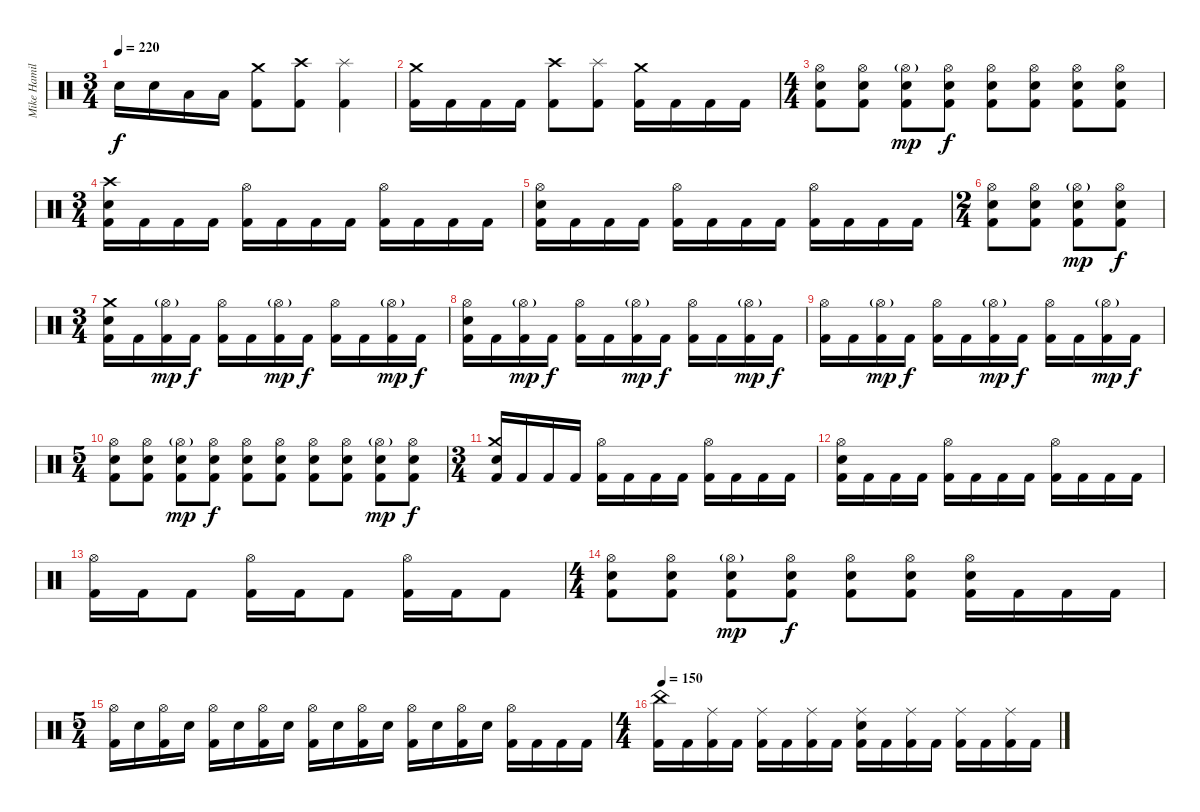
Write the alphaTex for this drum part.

\track ("Mike Hamilton" "Mike Hamil") {instrument percussion}
\staff {score}
\articulation defaults
\ts (3 4)
\tempo 220
\clef neutral
\ks c "Electric Snare (hit)".16{dy f} "Electric Snare (hit)".16 "Low Tom (hit)".16 "Low Tom (hit)".16
("Crash medium (hit)" "Kick (hit) 2").8 ("Crash high (hit)" "Kick (hit) 2").8 ("Splash (hit)" "Kick (hit) 2").4 |
("Crash medium (hit)" "Kick (hit) 2").16 "Kick (hit) 2".16 "Kick (hit) 2".16 "Kick (hit) 2".16 ("Crash high (hit)" "Kick (hit) 2").8 ("Splash (hit)" "Kick (hit) 2").8 ("Crash medium (hit)" "Kick (hit) 2").16 "Kick (hit) 2".16 "Kick (hit) 2".16 "Kick (hit) 2".16 |
\ts (4 4)
("Hi-Hat (open)" "Electric Snare (hit)" "Kick (hit) 2").8 ("Hi-Hat (open)" "Electric Snare (hit)" "Kick (hit) 2").8 ("Hi-Hat (open)"{g} "Electric Snare (hit)" "Kick (hit) 2").8{dy mp} ("Hi-Hat (open)" "Electric Snare (hit)" "Kick (hit) 2").8{dy f} ("Hi-Hat (open)" "Electric Snare (hit)" "Kick (hit) 2").8 ("Hi-Hat (open)" "Electric Snare (hit)" "Kick (hit) 2").8 ("Hi-Hat (open)" "Electric Snare (hit)" "Kick (hit) 2").8 ("Hi-Hat (open)" "Electric Snare (hit)" "Kick (hit) 2").8 |
\ts (3 4)
("Crash high (hit)" "Electric Snare (hit)" "Kick (hit) 2").16 "Kick (hit) 2".16 "Kick (hit) 2".16 "Kick (hit) 2".16 ("Hi-Hat (open)" "Kick (hit) 2").16 "Kick (hit) 2".16 "Kick (hit) 2".16 "Kick (hit) 2".16 ("Hi-Hat (open)" "Kick (hit) 2").16 "Kick (hit) 2".16 "Kick (hit) 2".16 "Kick (hit) 2".16 |
("Hi-Hat (open)" "Electric Snare (hit)" "Kick (hit) 2").16 "Kick (hit) 2".16 "Kick (hit) 2".16 "Kick (hit) 2".16 ("Hi-Hat (open)" "Kick (hit) 2").16 "Kick (hit) 2".16 "Kick (hit) 2".16 "Kick (hit) 2".16 ("Hi-Hat (open)" "Kick (hit) 2").16 "Kick (hit) 2".16 "Kick (hit) 2".16 "Kick (hit) 2".16 |
\ts (2 4)
("Hi-Hat (open)" "Electric Snare (hit)" "Kick (hit) 2").8 ("Hi-Hat (open)" "Electric Snare (hit)" "Kick (hit) 2").8 ("Hi-Hat (open)"{g} "Electric Snare (hit)" "Kick (hit) 2").8{dy mp} ("Hi-Hat (open)" "Electric Snare (hit)" "Kick (hit) 2").8{dy f} |
\ts (3 4)
("Crash medium (hit)" "Electric Snare (hit)" "Kick (hit) 2").16 "Kick (hit) 2".16 ("Hi-Hat (open)"{g} "Kick (hit) 2").16{dy mp} "Kick (hit) 2".16{dy f} ("Hi-Hat (open)" "Kick (hit) 2").16 "Kick (hit) 2".16 ("Hi-Hat (open)"{g} "Kick (hit) 2").16{dy mp} "Kick (hit) 2".16{dy f} ("Hi-Hat (open)" "Kick (hit) 2").16 "Kick (hit) 2".16 ("Hi-Hat (open)"{g} "Kick (hit) 2").16{dy mp} "Kick (hit) 2".16{dy f} |
("Hi-Hat (open)" "Electric Snare (hit)" "Kick (hit) 2").16 "Kick (hit) 2".16 ("Hi-Hat (open)"{g} "Kick (hit) 2").16{dy mp} "Kick (hit) 2".16{dy f} ("Hi-Hat (open)" "Kick (hit) 2").16 "Kick (hit) 2".16 ("Hi-Hat (open)"{g} "Kick (hit) 2").16{dy mp} "Kick (hit) 2".16{dy f} ("Hi-Hat (open)" "Kick (hit) 2").16 "Kick (hit) 2".16 ("Hi-Hat (open)"{g} "Kick (hit) 2").16{dy mp} "Kick (hit) 2".16{dy f} |
("Hi-Hat (open)" "Kick (hit) 2").16 "Kick (hit) 2".16 ("Hi-Hat (open)"{g} "Kick (hit) 2").16{dy mp} "Kick (hit) 2".16{dy f} ("Hi-Hat (open)" "Kick (hit) 2").16 "Kick (hit) 2".16 ("Hi-Hat (open)"{g} "Kick (hit) 2").16{dy mp} "Kick (hit) 2".16{dy f} ("Hi-Hat (open)" "Kick (hit) 2").16 "Kick (hit) 2".16 ("Hi-Hat (open)"{g} "Kick (hit) 2").16{dy mp} "Kick (hit) 2".16{dy f} |
\ts (5 4)
("Hi-Hat (open)" "Electric Snare (hit)" "Kick (hit) 2").8 ("Hi-Hat (open)" "Electric Snare (hit)" "Kick (hit) 2").8 ("Hi-Hat (open)"{g} "Electric Snare (hit)" "Kick (hit) 2").8{dy mp} ("Hi-Hat (open)" "Electric Snare (hit)" "Kick (hit) 2").8{dy f} ("Hi-Hat (open)" "Electric Snare (hit)" "Kick (hit) 2").8 ("Hi-Hat (open)" "Electric Snare (hit)" "Kick (hit) 2").8 ("Hi-Hat (open)" "Electric Snare (hit)" "Kick (hit) 2").8 ("Hi-Hat (open)" "Electric Snare (hit)" "Kick (hit) 2").8 ("Hi-Hat (open)"{g} "Electric Snare (hit)" "Kick (hit) 2").8{dy mp} ("Hi-Hat (open)" "Electric Snare (hit)" "Kick (hit) 2").8{dy f} |
\ts (3 4)
("Crash medium (hit)" "Electric Snare (hit)" "Kick (hit) 2").16 "Kick (hit) 2".16 "Kick (hit) 2".16 "Kick (hit) 2".16 ("Hi-Hat (open)" "Kick (hit) 2").16 "Kick (hit) 2".16 "Kick (hit) 2".16 "Kick (hit) 2".16 ("Hi-Hat (open)" "Kick (hit) 2").16 "Kick (hit) 2".16 "Kick (hit) 2".16 "Kick (hit) 2".16 |
("Hi-Hat (open)" "Electric Snare (hit)" "Kick (hit) 2").16 "Kick (hit) 2".16 "Kick (hit) 2".16 "Kick (hit) 2".16 ("Hi-Hat (open)" "Kick (hit) 2").16 "Kick (hit) 2".16 "Kick (hit) 2".16 "Kick (hit) 2".16 ("Hi-Hat (open)" "Kick (hit) 2").16 "Kick (hit) 2".16 "Kick (hit) 2".16 "Kick (hit) 2".16 |
("Hi-Hat (open)" "Kick (hit) 2").16 "Kick (hit) 2".16 "Kick (hit) 2".8 ("Hi-Hat (open)" "Kick (hit) 2").16 "Kick (hit) 2".16 "Kick (hit) 2".8 ("Hi-Hat (open)" "Kick (hit) 2").16 "Kick (hit) 2".16 "Kick (hit) 2".8 |
\ts (4 4)
("Hi-Hat (open)" "Electric Snare (hit)" "Kick (hit) 2").8 ("Hi-Hat (open)" "Electric Snare (hit)" "Kick (hit) 2").8 ("Hi-Hat (open)"{g} "Electric Snare (hit)" "Kick (hit) 2").8{dy mp} ("Hi-Hat (open)" "Electric Snare (hit)" "Kick (hit) 2").8{dy f} ("Hi-Hat (open)" "Electric Snare (hit)" "Kick (hit) 2").8 ("Hi-Hat (open)" "Electric Snare (hit)" "Kick (hit) 2").8 ("Hi-Hat (open)" "Electric Snare (hit)" "Kick (hit) 2").16 "Kick (hit) 2".16 "Kick (hit) 2".16 "Kick (hit) 2".16 |
\ts (5 4)
("Hi-Hat (open)" "Kick (hit) 2").16 "Electric Snare (hit)".16 ("Hi-Hat (open)" "Kick (hit) 2").16 "Electric Snare (hit)".16 ("Hi-Hat (open)" "Kick (hit) 2").16 "Electric Snare (hit)".16 ("Hi-Hat (open)" "Kick (hit) 2").16 "Electric Snare (hit)".16 ("Hi-Hat (open)" "Kick (hit) 2").16 "Electric Snare (hit)".16 ("Hi-Hat (open)" "Kick (hit) 2").16 "Electric Snare (hit)".16 ("Hi-Hat (open)" "Kick (hit) 2").16 "Electric Snare (hit)".16 ("Hi-Hat (open)" "Kick (hit) 2").16 "Electric Snare (hit)".16 ("Hi-Hat (open)" "Kick (hit) 2").16 "Kick (hit) 2".16 "Kick (hit) 2".16 "Kick (hit) 2".16 |
\ts (4 4)
\tempo 150
("China (hit)" "Kick (hit) 2").16 "Kick (hit) 2".16 ("Ride (middle)" "Kick (hit) 2").16 "Kick (hit) 2".16 ("Ride (middle)" "Kick (hit) 2").16 "Kick (hit) 2".16 ("Ride (middle)" "Kick (hit) 2").16 "Kick (hit) 2".16 ("Ride (middle)" "Electric Snare (hit)" "Kick (hit) 2").16 "Kick (hit) 2".16 ("Ride (middle)" "Kick (hit) 2").16 "Kick (hit) 2".16 ("Ride (middle)" "Kick (hit) 2").16 "Kick (hit) 2".16 ("Ride (middle)" "Kick (hit) 2").16 "Kick (hit) 2".16
